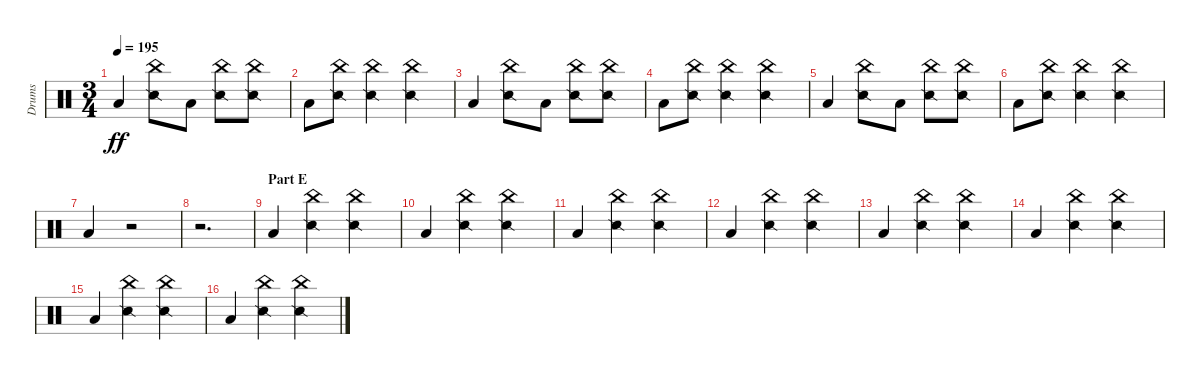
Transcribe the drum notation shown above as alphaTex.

\track ("Drums" "Drums") {instrument percussion}
\staff {score}
\articulation defaults
\ts (3 4)
\tempo 195
\clef neutral
\ks c "Low Floor Tom (hit)".4{dy ff}
("China (hit)" "Snare (side stick) 2").8 "Low Floor Tom (hit)".8 ("China (hit)" "Snare (side stick) 2").8 ("China (hit)" "Snare (side stick) 2").8 |
"Low Floor Tom (hit)".8 ("China (hit)" "Snare (side stick) 2").8 ("China (hit)" "Snare (side stick) 2").4 ("China (hit)" "Snare (side stick) 2").4 |
"Low Floor Tom (hit)".4 ("China (hit)" "Snare (side stick) 2").8 "Low Floor Tom (hit)".8 ("China (hit)" "Snare (side stick) 2").8 ("China (hit)" "Snare (side stick) 2").8 |
"Low Floor Tom (hit)".8 ("China (hit)" "Snare (side stick) 2").8 ("China (hit)" "Snare (side stick) 2").4 ("China (hit)" "Snare (side stick) 2").4 |
"Low Floor Tom (hit)".4 ("China (hit)" "Snare (side stick) 2").8 "Low Floor Tom (hit)".8 ("China (hit)" "Snare (side stick) 2").8 ("China (hit)" "Snare (side stick) 2").8 |
"Low Floor Tom (hit)".8 ("China (hit)" "Snare (side stick) 2").8 ("China (hit)" "Snare (side stick) 2").4 ("China (hit)" "Snare (side stick) 2").4 |
"Low Floor Tom (hit)".4 r.2 |
r.2{d} |
\section ("" "Part E")
"Low Floor Tom (hit)".4 ("China (hit)" "Snare (side stick) 2").4 ("China (hit)" "Snare (side stick) 2").4 |
"Low Floor Tom (hit)".4 ("China (hit)" "Snare (side stick) 2").4 ("China (hit)" "Snare (side stick) 2").4 |
"Low Floor Tom (hit)".4 ("China (hit)" "Snare (side stick) 2").4 ("China (hit)" "Snare (side stick) 2").4 |
"Low Floor Tom (hit)".4 ("China (hit)" "Snare (side stick) 2").4 ("China (hit)" "Snare (side stick) 2").4 |
"Low Floor Tom (hit)".4 ("China (hit)" "Snare (side stick) 2").4 ("China (hit)" "Snare (side stick) 2").4 |
"Low Floor Tom (hit)".4 ("China (hit)" "Snare (side stick) 2").4 ("China (hit)" "Snare (side stick) 2").4 |
"Low Floor Tom (hit)".4 ("China (hit)" "Snare (side stick) 2").4 ("China (hit)" "Snare (side stick) 2").4 |
"Low Floor Tom (hit)".4 ("China (hit)" "Snare (side stick) 2").4 ("China (hit)" "Snare (side stick) 2").4
